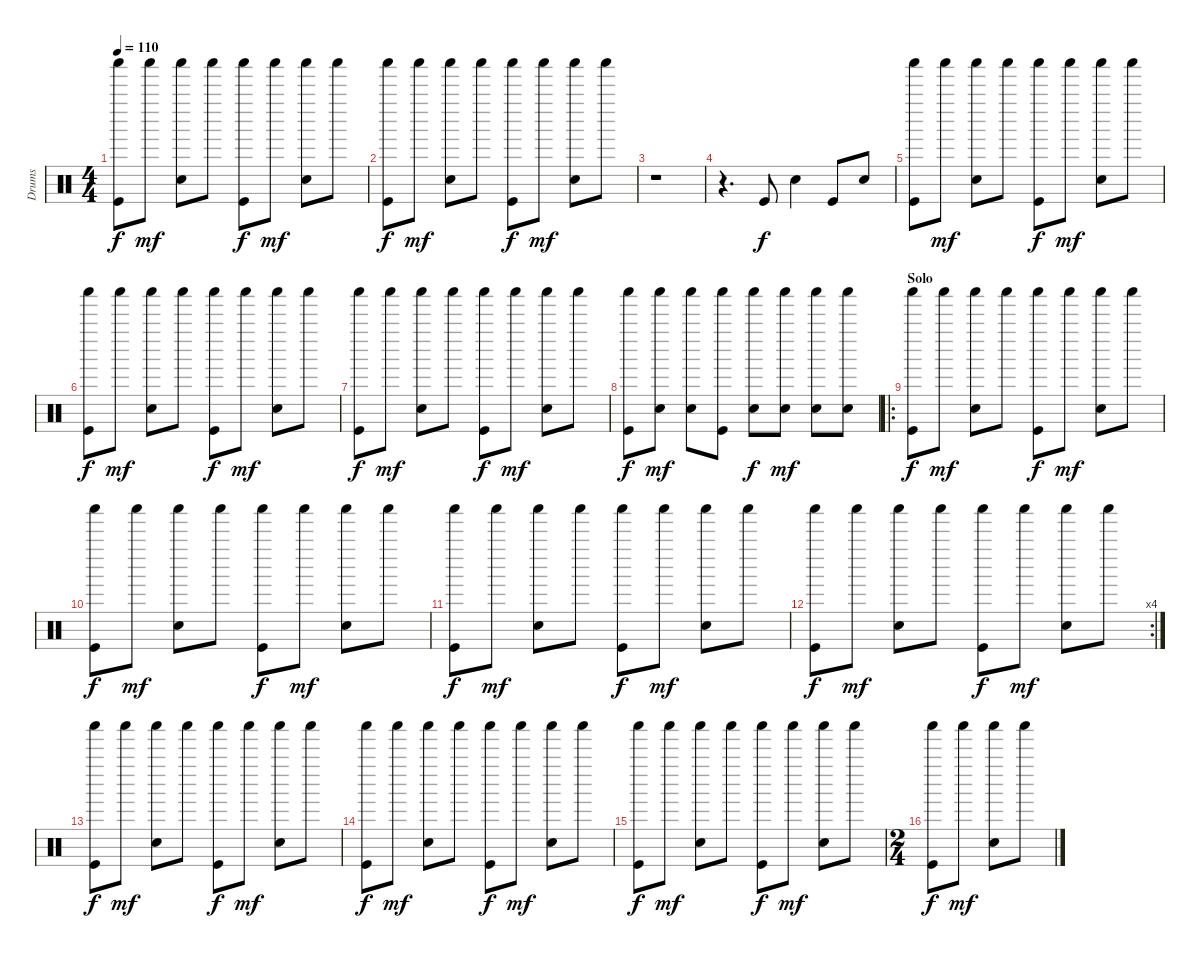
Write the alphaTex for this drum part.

\track ("Drums" "Drums") {instrument percussion}
\staff {score}
\articulation defaults
\ts (4 4)
\tempo 110
\clef neutral
\ks c
("Shaker (hit)" "Kick (hit)").8{dy f} "Shaker (hit)".8{dy mf} ("Shaker (hit)" "Snare (hit) 2").8 "Shaker (hit)".8 ("Shaker (hit)" "Kick (hit)").8{dy f} "Shaker (hit)".8{dy mf} ("Shaker (hit)" "Snare (hit) 2").8 "Shaker (hit)".8 |
("Shaker (hit)" "Kick (hit)").8{dy f} "Shaker (hit)".8{dy mf} ("Shaker (hit)" "Snare (hit) 2").8 "Shaker (hit)".8 ("Shaker (hit)" "Kick (hit)").8{dy f} "Shaker (hit)".8{dy mf} ("Shaker (hit)" "Snare (hit) 2").8 "Shaker (hit)".8 |
r.1 |
r.4{d} "Kick (hit)".8{dy f} "Snare (hit) 2".4 "Kick (hit)".8 "Electric Snare (hit)".8 |
("Shaker (hit)" "Kick (hit)").8 "Shaker (hit)".8{dy mf} ("Shaker (hit)" "Snare (hit) 2").8 "Shaker (hit)".8 ("Shaker (hit)" "Kick (hit)").8{dy f} "Shaker (hit)".8{dy mf} ("Shaker (hit)" "Snare (hit) 2").8 "Shaker (hit)".8 |
("Shaker (hit)" "Kick (hit)").8{dy f} "Shaker (hit)".8{dy mf} ("Shaker (hit)" "Snare (hit) 2").8 "Shaker (hit)".8 ("Shaker (hit)" "Kick (hit)").8{dy f} "Shaker (hit)".8{dy mf} ("Shaker (hit)" "Snare (hit) 2").8 "Shaker (hit)".8 |
("Shaker (hit)" "Kick (hit)").8{dy f} "Shaker (hit)".8{dy mf} ("Shaker (hit)" "Snare (hit) 2").8 "Shaker (hit)".8 ("Shaker (hit)" "Kick (hit)").8{dy f} "Shaker (hit)".8{dy mf} ("Shaker (hit)" "Snare (hit) 2").8 "Shaker (hit)".8 |
("Shaker (hit)" "Kick (hit)").8{dy f} ("Shaker (hit)" "Snare (hit) 2").8{dy mf} ("Shaker (hit)" "Snare (hit) 2").8 ("Shaker (hit)" "Kick (hit)").8 ("Shaker (hit)" "Snare (hit) 2").8{dy f} ("Shaker (hit)" "Snare (hit) 2").8{dy mf} ("Shaker (hit)" "Snare (hit) 2").8 ("Shaker (hit)" "Snare (hit) 2").8 |
\ro
\section ("" "Solo")
("Shaker (hit)" "Kick (hit)").8{dy f} "Shaker (hit)".8{dy mf} ("Shaker (hit)" "Snare (hit) 2").8 "Shaker (hit)".8 ("Shaker (hit)" "Kick (hit)").8{dy f} "Shaker (hit)".8{dy mf} ("Shaker (hit)" "Snare (hit) 2").8 "Shaker (hit)".8 |
("Shaker (hit)" "Kick (hit)").8{dy f} "Shaker (hit)".8{dy mf} ("Shaker (hit)" "Snare (hit) 2").8 "Shaker (hit)".8 ("Shaker (hit)" "Kick (hit)").8{dy f} "Shaker (hit)".8{dy mf} ("Shaker (hit)" "Snare (hit) 2").8 "Shaker (hit)".8 |
("Shaker (hit)" "Kick (hit)").8{dy f} "Shaker (hit)".8{dy mf} ("Shaker (hit)" "Snare (hit) 2").8 "Shaker (hit)".8 ("Shaker (hit)" "Kick (hit)").8{dy f} "Shaker (hit)".8{dy mf} ("Shaker (hit)" "Snare (hit) 2").8 "Shaker (hit)".8 |
\rc 4
("Shaker (hit)" "Kick (hit)").8{dy f} "Shaker (hit)".8{dy mf} ("Shaker (hit)" "Snare (hit) 2").8 "Shaker (hit)".8 ("Shaker (hit)" "Kick (hit)").8{dy f} "Shaker (hit)".8{dy mf} ("Shaker (hit)" "Snare (hit) 2").8 "Shaker (hit)".8 |
("Shaker (hit)" "Kick (hit)").8{dy f} "Shaker (hit)".8{dy mf} ("Shaker (hit)" "Snare (hit) 2").8 "Shaker (hit)".8 ("Shaker (hit)" "Kick (hit)").8{dy f} "Shaker (hit)".8{dy mf} ("Shaker (hit)" "Snare (hit) 2").8 "Shaker (hit)".8 |
("Shaker (hit)" "Kick (hit)").8{dy f} "Shaker (hit)".8{dy mf} ("Shaker (hit)" "Snare (hit) 2").8 "Shaker (hit)".8 ("Shaker (hit)" "Kick (hit)").8{dy f} "Shaker (hit)".8{dy mf} ("Shaker (hit)" "Snare (hit) 2").8 "Shaker (hit)".8 |
("Shaker (hit)" "Kick (hit)").8{dy f} "Shaker (hit)".8{dy mf} ("Shaker (hit)" "Snare (hit) 2").8 "Shaker (hit)".8 ("Shaker (hit)" "Kick (hit)").8{dy f} "Shaker (hit)".8{dy mf} ("Shaker (hit)" "Snare (hit) 2").8 "Shaker (hit)".8 |
\ts (2 4)
("Shaker (hit)" "Kick (hit)").8{dy f} "Shaker (hit)".8{dy mf} ("Shaker (hit)" "Snare (hit) 2").8 "Shaker (hit)".8
